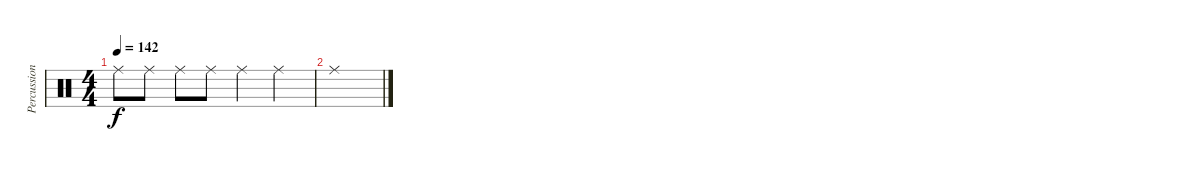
\track ("Percussion" "Percussion") {instrument percussion}
\staff {score}
\articulation defaults
\ts (4 4)
\tempo 142
\clef neutral
\ks c "Ride (middle)".8{dy f} "Ride (middle)".8 "Ride (middle)".8 "Ride (middle)".8 "Ride (middle)".4 "Ride (middle)".4
|
"Ride (middle)".1
